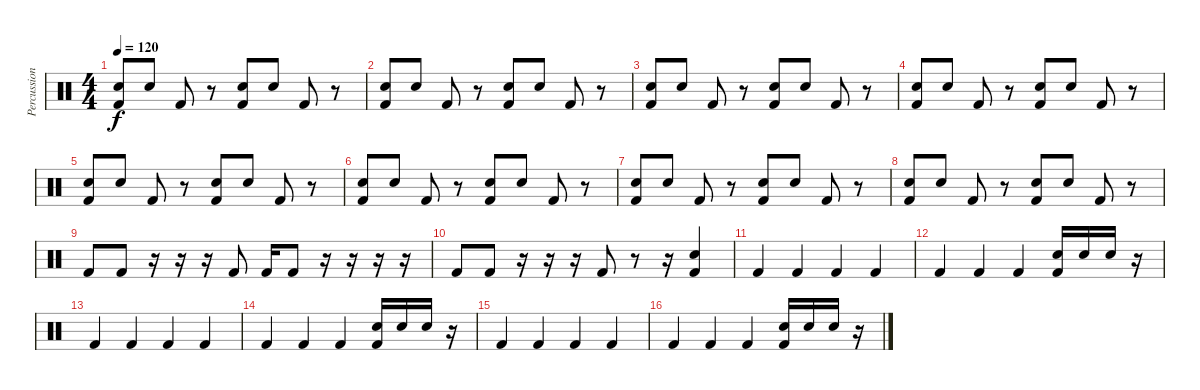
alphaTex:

\track ("Percussion" "Percussion") {instrument percussion}
\staff {score}
\articulation defaults
\ts (4 4)
\tempo 120
\clef neutral
\ks c
("Electric Snare (hit)" "Kick (hit) 2").8{dy f} "Electric Snare (hit)".8 "Kick (hit) 2".8 r.8 ("Electric Snare (hit)" "Kick (hit) 2").8 "Electric Snare (hit)".8 "Kick (hit) 2".8 r.8 |
("Electric Snare (hit)" "Kick (hit) 2").8 "Electric Snare (hit)".8 "Kick (hit) 2".8 r.8 ("Electric Snare (hit)" "Kick (hit) 2").8 "Electric Snare (hit)".8 "Kick (hit) 2".8 r.8 |
("Electric Snare (hit)" "Kick (hit) 2").8 "Electric Snare (hit)".8 "Kick (hit) 2".8 r.8 ("Electric Snare (hit)" "Kick (hit) 2").8 "Electric Snare (hit)".8 "Kick (hit) 2".8 r.8 |
("Electric Snare (hit)" "Kick (hit) 2").8 "Electric Snare (hit)".8 "Kick (hit) 2".8 r.8 ("Electric Snare (hit)" "Kick (hit) 2").8 "Electric Snare (hit)".8 "Kick (hit) 2".8 r.8 |
("Electric Snare (hit)" "Kick (hit) 2").8 "Electric Snare (hit)".8 "Kick (hit) 2".8 r.8 ("Electric Snare (hit)" "Kick (hit) 2").8 "Electric Snare (hit)".8 "Kick (hit) 2".8 r.8 |
("Electric Snare (hit)" "Kick (hit) 2").8 "Electric Snare (hit)".8 "Kick (hit) 2".8 r.8 ("Electric Snare (hit)" "Kick (hit) 2").8 "Electric Snare (hit)".8 "Kick (hit) 2".8 r.8 |
("Electric Snare (hit)" "Kick (hit) 2").8 "Electric Snare (hit)".8 "Kick (hit) 2".8 r.8 ("Electric Snare (hit)" "Kick (hit) 2").8 "Electric Snare (hit)".8 "Kick (hit) 2".8 r.8 |
("Electric Snare (hit)" "Kick (hit) 2").8 "Electric Snare (hit)".8 "Kick (hit) 2".8 r.8 ("Electric Snare (hit)" "Kick (hit) 2").8 "Electric Snare (hit)".8 "Kick (hit) 2".8 r.8 |
"Kick (hit) 2".8 "Kick (hit) 2".8 r.16 r.16 r.16 "Kick (hit) 2".8 "Kick (hit) 2".16 "Kick (hit) 2".8 r.16 r.16 r.16 r.16 |
"Kick (hit) 2".8 "Kick (hit) 2".8 r.16 r.16 r.16 "Kick (hit) 2".8 r.8 r.16 ("Electric Snare (hit)" "Kick (hit) 2").4 |
"Kick (hit) 2".4 "Kick (hit) 2".4 "Kick (hit) 2".4 "Kick (hit) 2".4 |
"Kick (hit) 2".4 "Kick (hit) 2".4 "Kick (hit) 2".4 ("Electric Snare (hit)" "Kick (hit) 2").16 "Electric Snare (hit)".16 "Electric Snare (hit)".16 r.16 |
"Kick (hit) 2".4 "Kick (hit) 2".4 "Kick (hit) 2".4 "Kick (hit) 2".4 |
"Kick (hit) 2".4 "Kick (hit) 2".4 "Kick (hit) 2".4 ("Electric Snare (hit)" "Kick (hit) 2").16 "Electric Snare (hit)".16 "Electric Snare (hit)".16 r.16 |
"Kick (hit) 2".4 "Kick (hit) 2".4 "Kick (hit) 2".4 "Kick (hit) 2".4 |
"Kick (hit) 2".4 "Kick (hit) 2".4 "Kick (hit) 2".4 ("Electric Snare (hit)" "Kick (hit) 2").16 "Electric Snare (hit)".16 "Electric Snare (hit)".16 r.16
